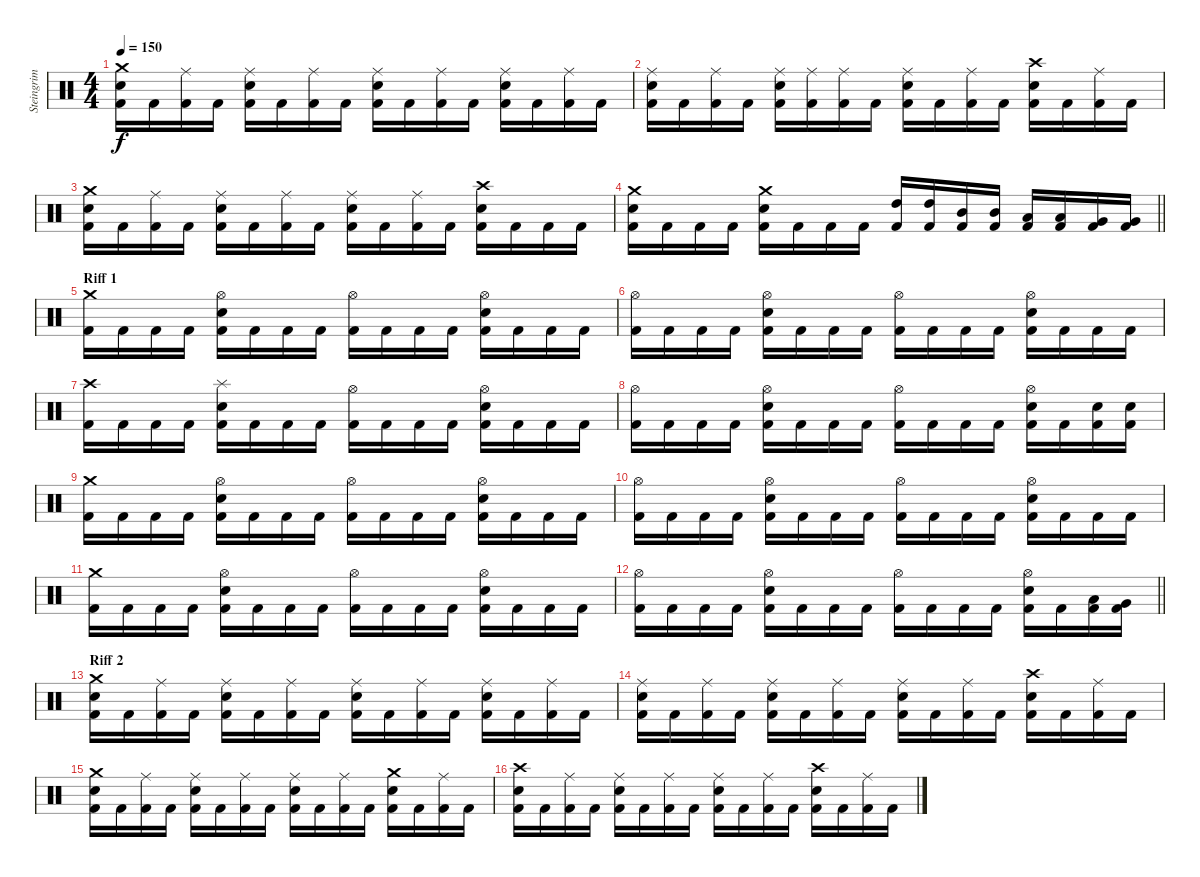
\track ("Steingrim" "Steingrim") {instrument percussion}
\staff {score}
\articulation defaults
\ts (4 4)
\tempo 150
\clef neutral
\ks c
("Crash medium (hit)" "Snare (hit) 2" "Kick (hit) 2").16{dy f} "Kick (hit) 2".16 ("Ride (middle)" "Kick (hit) 2").16 "Kick (hit) 2".16 ("Ride (middle)" "Snare (hit) 2" "Kick (hit) 2").16 "Kick (hit) 2".16 ("Ride (middle)" "Kick (hit) 2").16 "Kick (hit) 2".16 ("Ride (middle)" "Snare (hit) 2" "Kick (hit) 2").16 "Kick (hit) 2".16 ("Ride (middle)" "Kick (hit) 2").16 "Kick (hit) 2".16 ("Ride (middle)" "Snare (hit) 2" "Kick (hit) 2").16 "Kick (hit) 2".16 ("Ride (middle)" "Kick (hit) 2").16 "Kick (hit) 2".16 |
("Ride (middle)" "Snare (hit) 2" "Kick (hit) 2").16 "Kick (hit) 2".16 ("Ride (middle)" "Kick (hit) 2").16 "Kick (hit) 2".16 ("Ride (middle)" "Snare (hit) 2" "Kick (hit) 2").16 ("Ride (middle)" "Kick (hit) 2").16 ("Ride (middle)" "Kick (hit) 2").16 "Kick (hit) 2".16 ("Ride (middle)" "Snare (hit) 2" "Kick (hit) 2").16 "Kick (hit) 2".16 ("Ride (middle)" "Kick (hit) 2").16 "Kick (hit) 2".16 ("Crash high (hit)" "Snare (hit) 2" "Kick (hit) 2").16 "Kick (hit) 2".16 ("Ride (middle)" "Kick (hit) 2").16 "Kick (hit) 2".16 |
("Crash medium (hit)" "Snare (hit) 2" "Kick (hit) 2").16 "Kick (hit) 2".16 ("Ride (middle)" "Kick (hit) 2").16 "Kick (hit) 2".16 ("Ride (middle)" "Snare (hit) 2" "Kick (hit) 2").16 "Kick (hit) 2".16 ("Ride (middle)" "Kick (hit) 2").16 "Kick (hit) 2".16 ("Ride (middle)" "Snare (hit) 2" "Kick (hit) 2").16 "Kick (hit) 2".16 ("Ride (middle)" "Kick (hit) 2").16 "Kick (hit) 2".16 ("Crash high (hit)" "Snare (hit) 2" "Kick (hit) 2").16 "Kick (hit) 2".16 "Kick (hit) 2".16 "Kick (hit) 2".16 |
\barLineRight lightlight
("Crash medium (hit)" "Snare (hit) 2" "Kick (hit) 2").16 "Kick (hit) 2".16 "Kick (hit) 2".16 "Kick (hit) 2".16 ("Crash medium (hit)" "Snare (hit) 2" "Kick (hit) 2").16 "Kick (hit) 2".16 "Kick (hit) 2".16 "Kick (hit) 2".16 ("High Tom (hit)" "Kick (hit) 2").16 ("High Tom (hit)" "Kick (hit) 2").16 ("Mid Tom (hit)" "Kick (hit) 2").16 ("Mid Tom (hit)" "Kick (hit) 2").16 ("Low Tom (hit)" "Kick (hit) 2").16 ("Low Tom (hit)" "Kick (hit) 2").16 ("Very Low Tom (hit)" "Kick (hit) 2").16 ("Very Low Tom (hit)" "Kick (hit) 2").16 |
\section ("" "Riff 1")
("Crash medium (hit)" "Kick (hit) 2").16 "Kick (hit) 2".16 "Kick (hit) 2".16 "Kick (hit) 2".16 ("Hi-Hat (open)" "Snare (hit) 2" "Kick (hit) 2").16 "Kick (hit) 2".16 "Kick (hit) 2".16 "Kick (hit) 2".16 ("Hi-Hat (open)" "Kick (hit) 2").16 "Kick (hit) 2".16 "Kick (hit) 2".16 "Kick (hit) 2".16 ("Hi-Hat (open)" "Snare (hit) 2" "Kick (hit) 2").16 "Kick (hit) 2".16 "Kick (hit) 2".16 "Kick (hit) 2".16 |
("Hi-Hat (open)" "Kick (hit) 2").16 "Kick (hit) 2".16 "Kick (hit) 2".16 "Kick (hit) 2".16 ("Hi-Hat (open)" "Snare (hit) 2" "Kick (hit) 2").16 "Kick (hit) 2".16 "Kick (hit) 2".16 "Kick (hit) 2".16 ("Hi-Hat (open)" "Kick (hit) 2").16 "Kick (hit) 2".16 "Kick (hit) 2".16 "Kick (hit) 2".16 ("Hi-Hat (open)" "Snare (hit) 2" "Kick (hit) 2").16 "Kick (hit) 2".16 "Kick (hit) 2".16 "Kick (hit) 2".16 |
("Crash high (hit)" "Kick (hit) 2").16 "Kick (hit) 2".16 "Kick (hit) 2".16 "Kick (hit) 2".16 ("Splash (hit)" "Snare (hit) 2" "Kick (hit) 2").16 "Kick (hit) 2".16 "Kick (hit) 2".16 "Kick (hit) 2".16 ("Hi-Hat (open)" "Kick (hit) 2").16 "Kick (hit) 2".16 "Kick (hit) 2".16 "Kick (hit) 2".16 ("Hi-Hat (open)" "Snare (hit) 2" "Kick (hit) 2").16 "Kick (hit) 2".16 "Kick (hit) 2".16 "Kick (hit) 2".16 |
("Hi-Hat (open)" "Kick (hit) 2").16 "Kick (hit) 2".16 "Kick (hit) 2".16 "Kick (hit) 2".16 ("Hi-Hat (open)" "Snare (hit) 2" "Kick (hit) 2").16 "Kick (hit) 2".16 "Kick (hit) 2".16 "Kick (hit) 2".16 ("Hi-Hat (open)" "Kick (hit) 2").16 "Kick (hit) 2".16 "Kick (hit) 2".16 "Kick (hit) 2".16 ("Hi-Hat (open)" "Snare (hit) 2" "Kick (hit) 2").16 "Kick (hit) 2".16 ("Snare (hit) 2" "Kick (hit) 2").16 ("Snare (hit) 2" "Kick (hit) 2").16 |
("Crash medium (hit)" "Kick (hit) 2").16 "Kick (hit) 2".16 "Kick (hit) 2".16 "Kick (hit) 2".16 ("Hi-Hat (open)" "Snare (hit) 2" "Kick (hit) 2").16 "Kick (hit) 2".16 "Kick (hit) 2".16 "Kick (hit) 2".16 ("Hi-Hat (open)" "Kick (hit) 2").16 "Kick (hit) 2".16 "Kick (hit) 2".16 "Kick (hit) 2".16 ("Hi-Hat (open)" "Snare (hit) 2" "Kick (hit) 2").16 "Kick (hit) 2".16 "Kick (hit) 2".16 "Kick (hit) 2".16 |
("Hi-Hat (open)" "Kick (hit) 2").16 "Kick (hit) 2".16 "Kick (hit) 2".16 "Kick (hit) 2".16 ("Hi-Hat (open)" "Snare (hit) 2" "Kick (hit) 2").16 "Kick (hit) 2".16 "Kick (hit) 2".16 "Kick (hit) 2".16 ("Hi-Hat (open)" "Kick (hit) 2").16 "Kick (hit) 2".16 "Kick (hit) 2".16 "Kick (hit) 2".16 ("Hi-Hat (open)" "Snare (hit) 2" "Kick (hit) 2").16 "Kick (hit) 2".16 "Kick (hit) 2".16 "Kick (hit) 2".16 |
("Crash medium (hit)" "Kick (hit) 2").16 "Kick (hit) 2".16 "Kick (hit) 2".16 "Kick (hit) 2".16 ("Hi-Hat (open)" "Snare (hit) 2" "Kick (hit) 2").16 "Kick (hit) 2".16 "Kick (hit) 2".16 "Kick (hit) 2".16 ("Hi-Hat (open)" "Kick (hit) 2").16 "Kick (hit) 2".16 "Kick (hit) 2".16 "Kick (hit) 2".16 ("Hi-Hat (open)" "Snare (hit) 2" "Kick (hit) 2").16 "Kick (hit) 2".16 "Kick (hit) 2".16 "Kick (hit) 2".16 |
\barLineRight lightlight
("Hi-Hat (open)" "Kick (hit) 2").16 "Kick (hit) 2".16 "Kick (hit) 2".16 "Kick (hit) 2".16 ("Hi-Hat (open)" "Snare (hit) 2" "Kick (hit) 2").16 "Kick (hit) 2".16 "Kick (hit) 2".16 "Kick (hit) 2".16 ("Hi-Hat (open)" "Kick (hit) 2").16 "Kick (hit) 2".16 "Kick (hit) 2".16 "Kick (hit) 2".16 ("Hi-Hat (open)" "Snare (hit) 2" "Kick (hit) 2").16 "Kick (hit) 2".16 ("Low Tom (hit)" "Kick (hit) 2").16 ("Very Low Tom (hit)" "Kick (hit) 2").16 |
\section ("" "Riff 2")
("Crash medium (hit)" "Snare (hit) 2" "Kick (hit) 2").16 "Kick (hit) 2".16 ("Ride (middle)" "Kick (hit) 2").16 "Kick (hit) 2".16 ("Ride (middle)" "Snare (hit) 2" "Kick (hit) 2").16 "Kick (hit) 2".16 ("Ride (middle)" "Kick (hit) 2").16 "Kick (hit) 2".16 ("Ride (middle)" "Snare (hit) 2" "Kick (hit) 2").16 "Kick (hit) 2".16 ("Ride (middle)" "Kick (hit) 2").16 "Kick (hit) 2".16 ("Ride (middle)" "Snare (hit) 2" "Kick (hit) 2").16 "Kick (hit) 2".16 ("Ride (middle)" "Kick (hit) 2").16 "Kick (hit) 2".16 |
("Ride (middle)" "Snare (hit) 2" "Kick (hit) 2").16 "Kick (hit) 2".16 ("Ride (middle)" "Kick (hit) 2").16 "Kick (hit) 2".16 ("Ride (middle)" "Snare (hit) 2" "Kick (hit) 2").16 "Kick (hit) 2".16 ("Ride (middle)" "Kick (hit) 2").16 "Kick (hit) 2".16 ("Ride (middle)" "Snare (hit) 2" "Kick (hit) 2").16 "Kick (hit) 2".16 ("Ride (middle)" "Kick (hit) 2").16 "Kick (hit) 2".16 ("Crash high (hit)" "Snare (hit) 2" "Kick (hit) 2").16 "Kick (hit) 2".16 ("Ride (middle)" "Kick (hit) 2").16 "Kick (hit) 2".16 |
("Crash medium (hit)" "Snare (hit) 2" "Kick (hit) 2").16 "Kick (hit) 2".16 ("Ride (middle)" "Kick (hit) 2").16 "Kick (hit) 2".16 ("Ride (middle)" "Snare (hit) 2" "Kick (hit) 2").16 "Kick (hit) 2".16 ("Ride (middle)" "Kick (hit) 2").16 "Kick (hit) 2".16 ("Ride (middle)" "Snare (hit) 2" "Kick (hit) 2").16 "Kick (hit) 2".16 ("Ride (middle)" "Kick (hit) 2").16 "Kick (hit) 2".16 ("Crash medium (hit)" "Snare (hit) 2" "Kick (hit) 2").16 "Kick (hit) 2".16 ("Ride (middle)" "Kick (hit) 2").16 "Kick (hit) 2".16 |
("Crash high (hit)" "Snare (hit) 2" "Kick (hit) 2").16 "Kick (hit) 2".16 ("Ride (middle)" "Kick (hit) 2").16 "Kick (hit) 2".16 ("Ride (middle)" "Snare (hit) 2" "Kick (hit) 2").16 "Kick (hit) 2".16 ("Ride (middle)" "Kick (hit) 2").16 "Kick (hit) 2".16 ("Ride (middle)" "Snare (hit) 2" "Kick (hit) 2").16 "Kick (hit) 2".16 ("Ride (middle)" "Kick (hit) 2").16 "Kick (hit) 2".16 ("Crash high (hit)" "Snare (hit) 2" "Kick (hit) 2").16 "Kick (hit) 2".16 ("Ride (middle)" "Kick (hit) 2").16 "Kick (hit) 2".16
